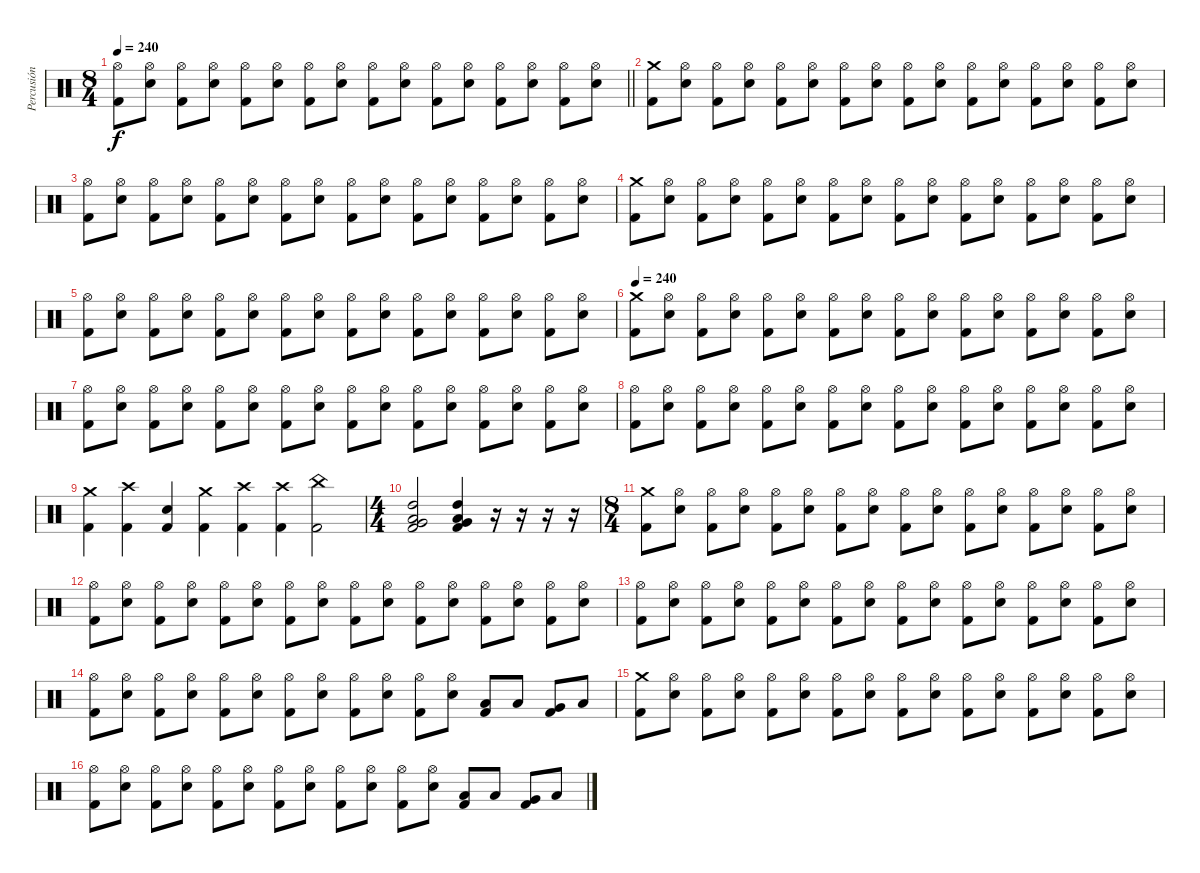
\track ("Percusión" "Percusión") {instrument percussion}
\staff {score}
\articulation defaults
\ts (8 4)
\tempo 240
\clef neutral
\barLineRight lightlight
\ks c
("Hi-Hat (open)" "Kick (hit) 2").8{dy f} ("Hi-Hat (open)" "Electric Snare (hit)").8 ("Hi-Hat (open)" "Kick (hit) 2").8 ("Hi-Hat (open)" "Electric Snare (hit)").8 ("Hi-Hat (open)" "Kick (hit) 2").8 ("Hi-Hat (open)" "Electric Snare (hit)").8 ("Hi-Hat (open)" "Kick (hit) 2").8 ("Hi-Hat (open)" "Electric Snare (hit)").8 ("Hi-Hat (open)" "Kick (hit) 2").8 ("Hi-Hat (open)" "Electric Snare (hit)").8 ("Hi-Hat (open)" "Kick (hit) 2").8 ("Hi-Hat (open)" "Electric Snare (hit)").8 ("Hi-Hat (open)" "Kick (hit) 2").8 ("Hi-Hat (open)" "Electric Snare (hit)").8 ("Hi-Hat (open)" "Kick (hit) 2").8 ("Hi-Hat (open)" "Electric Snare (hit)").8 |
("Crash medium (hit)" "Kick (hit) 2").8 ("Hi-Hat (open)" "Electric Snare (hit)").8 ("Hi-Hat (open)" "Kick (hit) 2").8 ("Hi-Hat (open)" "Electric Snare (hit)").8 ("Hi-Hat (open)" "Kick (hit) 2").8 ("Hi-Hat (open)" "Electric Snare (hit)").8 ("Hi-Hat (open)" "Kick (hit) 2").8 ("Hi-Hat (open)" "Electric Snare (hit)").8 ("Hi-Hat (open)" "Kick (hit) 2").8 ("Hi-Hat (open)" "Electric Snare (hit)").8 ("Hi-Hat (open)" "Kick (hit) 2").8 ("Hi-Hat (open)" "Electric Snare (hit)").8 ("Hi-Hat (open)" "Kick (hit) 2").8 ("Hi-Hat (open)" "Electric Snare (hit)").8 ("Hi-Hat (open)" "Kick (hit) 2").8 ("Hi-Hat (open)" "Electric Snare (hit)").8 |
("Hi-Hat (open)" "Kick (hit) 2").8 ("Hi-Hat (open)" "Electric Snare (hit)").8 ("Hi-Hat (open)" "Kick (hit) 2").8 ("Hi-Hat (open)" "Electric Snare (hit)").8 ("Hi-Hat (open)" "Kick (hit) 2").8 ("Hi-Hat (open)" "Electric Snare (hit)").8 ("Hi-Hat (open)" "Kick (hit) 2").8 ("Hi-Hat (open)" "Electric Snare (hit)").8 ("Hi-Hat (open)" "Kick (hit) 2").8 ("Hi-Hat (open)" "Electric Snare (hit)").8 ("Hi-Hat (open)" "Kick (hit) 2").8 ("Hi-Hat (open)" "Electric Snare (hit)").8 ("Hi-Hat (open)" "Kick (hit) 2").8 ("Hi-Hat (open)" "Electric Snare (hit)").8 ("Hi-Hat (open)" "Kick (hit) 2").8 ("Hi-Hat (open)" "Electric Snare (hit)").8 |
("Crash medium (hit)" "Kick (hit) 2").8 ("Hi-Hat (open)" "Electric Snare (hit)").8 ("Hi-Hat (open)" "Kick (hit) 2").8 ("Hi-Hat (open)" "Electric Snare (hit)").8 ("Hi-Hat (open)" "Kick (hit) 2").8 ("Hi-Hat (open)" "Electric Snare (hit)").8 ("Hi-Hat (open)" "Kick (hit) 2").8 ("Hi-Hat (open)" "Electric Snare (hit)").8 ("Hi-Hat (open)" "Kick (hit) 2").8 ("Hi-Hat (open)" "Electric Snare (hit)").8 ("Hi-Hat (open)" "Kick (hit) 2").8 ("Hi-Hat (open)" "Electric Snare (hit)").8 ("Hi-Hat (open)" "Kick (hit) 2").8 ("Hi-Hat (open)" "Electric Snare (hit)").8 ("Hi-Hat (open)" "Kick (hit) 2").8 ("Hi-Hat (open)" "Electric Snare (hit)").8 |
("Hi-Hat (open)" "Kick (hit) 2").8 ("Hi-Hat (open)" "Electric Snare (hit)").8 ("Hi-Hat (open)" "Kick (hit) 2").8 ("Hi-Hat (open)" "Electric Snare (hit)").8 ("Hi-Hat (open)" "Kick (hit) 2").8 ("Hi-Hat (open)" "Electric Snare (hit)").8 ("Hi-Hat (open)" "Kick (hit) 2").8 ("Hi-Hat (open)" "Electric Snare (hit)").8 ("Hi-Hat (open)" "Kick (hit) 2").8 ("Hi-Hat (open)" "Electric Snare (hit)").8 ("Hi-Hat (open)" "Kick (hit) 2").8 ("Hi-Hat (open)" "Electric Snare (hit)").8 ("Hi-Hat (open)" "Kick (hit) 2").8 ("Hi-Hat (open)" "Electric Snare (hit)").8 ("Hi-Hat (open)" "Kick (hit) 2").8 ("Hi-Hat (open)" "Electric Snare (hit)").8 |
\tempo 240
("Crash medium (hit)" "Kick (hit) 2").8 ("Hi-Hat (open)" "Electric Snare (hit)").8 ("Hi-Hat (open)" "Kick (hit) 2").8 ("Hi-Hat (open)" "Electric Snare (hit)").8 ("Hi-Hat (open)" "Kick (hit) 2").8 ("Hi-Hat (open)" "Electric Snare (hit)").8 ("Hi-Hat (open)" "Kick (hit) 2").8 ("Hi-Hat (open)" "Electric Snare (hit)").8 ("Hi-Hat (open)" "Kick (hit) 2").8 ("Hi-Hat (open)" "Electric Snare (hit)").8 ("Hi-Hat (open)" "Kick (hit) 2").8 ("Hi-Hat (open)" "Electric Snare (hit)").8 ("Hi-Hat (open)" "Kick (hit) 2").8 ("Hi-Hat (open)" "Electric Snare (hit)").8 ("Hi-Hat (open)" "Kick (hit) 2").8 ("Hi-Hat (open)" "Electric Snare (hit)").8 |
("Hi-Hat (open)" "Kick (hit) 2").8 ("Hi-Hat (open)" "Electric Snare (hit)").8 ("Hi-Hat (open)" "Kick (hit) 2").8 ("Hi-Hat (open)" "Electric Snare (hit)").8 ("Hi-Hat (open)" "Kick (hit) 2").8 ("Hi-Hat (open)" "Electric Snare (hit)").8 ("Hi-Hat (open)" "Kick (hit) 2").8 ("Hi-Hat (open)" "Electric Snare (hit)").8 ("Hi-Hat (open)" "Kick (hit) 2").8 ("Hi-Hat (open)" "Electric Snare (hit)").8 ("Hi-Hat (open)" "Kick (hit) 2").8 ("Hi-Hat (open)" "Electric Snare (hit)").8 ("Hi-Hat (open)" "Kick (hit) 2").8 ("Hi-Hat (open)" "Electric Snare (hit)").8 ("Hi-Hat (open)" "Kick (hit) 2").8 ("Hi-Hat (open)" "Electric Snare (hit)").8 |
("Hi-Hat (open)" "Kick (hit) 2").8 ("Hi-Hat (open)" "Electric Snare (hit)").8 ("Hi-Hat (open)" "Kick (hit) 2").8 ("Hi-Hat (open)" "Electric Snare (hit)").8 ("Hi-Hat (open)" "Kick (hit) 2").8 ("Hi-Hat (open)" "Electric Snare (hit)").8 ("Hi-Hat (open)" "Kick (hit) 2").8 ("Hi-Hat (open)" "Electric Snare (hit)").8 ("Hi-Hat (open)" "Kick (hit) 2").8 ("Hi-Hat (open)" "Electric Snare (hit)").8 ("Hi-Hat (open)" "Kick (hit) 2").8 ("Hi-Hat (open)" "Electric Snare (hit)").8 ("Hi-Hat (open)" "Kick (hit) 2").8 ("Hi-Hat (open)" "Electric Snare (hit)").8 ("Hi-Hat (open)" "Kick (hit) 2").8 ("Hi-Hat (open)" "Electric Snare (hit)").8 |
("Crash medium (hit)" "Kick (hit) 2").4 ("Crash high (hit)" "Kick (hit) 2").4 ("Electric Snare (hit)" "Kick (hit) 2").4 ("Crash medium (hit)" "Kick (hit) 2").4 ("Crash high (hit)" "Kick (hit) 2").4 ("Crash high (hit)" "Kick (hit) 2").4 ("China (hit)" "Kick (hit) 2").2 |
\ts (4 4)
("High Tom (hit)" "Very Low Tom (hit)" "Low Floor Tom (hit)" "Kick (hit) 2").2 ("High Tom (hit)" "Very Low Tom (hit)" "Low Floor Tom (hit)" "Kick (hit) 2").4 r.16 r.16 r.16 r.16 |
\ts (8 4)
("Crash medium (hit)" "Kick (hit) 2").8 ("Hi-Hat (open)" "Electric Snare (hit)").8 ("Hi-Hat (open)" "Kick (hit) 2").8 ("Hi-Hat (open)" "Electric Snare (hit)").8 ("Hi-Hat (open)" "Kick (hit) 2").8 ("Hi-Hat (open)" "Electric Snare (hit)").8 ("Hi-Hat (open)" "Kick (hit) 2").8 ("Hi-Hat (open)" "Electric Snare (hit)").8 ("Hi-Hat (open)" "Kick (hit) 2").8 ("Hi-Hat (open)" "Electric Snare (hit)").8 ("Hi-Hat (open)" "Kick (hit) 2").8 ("Hi-Hat (open)" "Electric Snare (hit)").8 ("Hi-Hat (open)" "Kick (hit) 2").8 ("Hi-Hat (open)" "Electric Snare (hit)").8 ("Hi-Hat (open)" "Kick (hit) 2").8 ("Hi-Hat (open)" "Electric Snare (hit)").8 |
("Hi-Hat (open)" "Kick (hit) 2").8 ("Hi-Hat (open)" "Electric Snare (hit)").8 ("Hi-Hat (open)" "Kick (hit) 2").8 ("Hi-Hat (open)" "Electric Snare (hit)").8 ("Hi-Hat (open)" "Kick (hit) 2").8 ("Hi-Hat (open)" "Electric Snare (hit)").8 ("Hi-Hat (open)" "Kick (hit) 2").8 ("Hi-Hat (open)" "Electric Snare (hit)").8 ("Hi-Hat (open)" "Kick (hit) 2").8 ("Hi-Hat (open)" "Electric Snare (hit)").8 ("Hi-Hat (open)" "Kick (hit) 2").8 ("Hi-Hat (open)" "Electric Snare (hit)").8 ("Hi-Hat (open)" "Kick (hit) 2").8 ("Hi-Hat (open)" "Electric Snare (hit)").8 ("Hi-Hat (open)" "Kick (hit) 2").8 ("Hi-Hat (open)" "Electric Snare (hit)").8 |
("Hi-Hat (open)" "Kick (hit) 2").8 ("Hi-Hat (open)" "Electric Snare (hit)").8 ("Hi-Hat (open)" "Kick (hit) 2").8 ("Hi-Hat (open)" "Electric Snare (hit)").8 ("Hi-Hat (open)" "Kick (hit) 2").8 ("Hi-Hat (open)" "Electric Snare (hit)").8 ("Hi-Hat (open)" "Kick (hit) 2").8 ("Hi-Hat (open)" "Electric Snare (hit)").8 ("Hi-Hat (open)" "Kick (hit) 2").8 ("Hi-Hat (open)" "Electric Snare (hit)").8 ("Hi-Hat (open)" "Kick (hit) 2").8 ("Hi-Hat (open)" "Electric Snare (hit)").8 ("Hi-Hat (open)" "Kick (hit) 2").8 ("Hi-Hat (open)" "Electric Snare (hit)").8 ("Hi-Hat (open)" "Kick (hit) 2").8 ("Hi-Hat (open)" "Electric Snare (hit)").8 |
("Hi-Hat (open)" "Kick (hit) 2").8 ("Hi-Hat (open)" "Electric Snare (hit)").8 ("Hi-Hat (open)" "Kick (hit) 2").8 ("Hi-Hat (open)" "Electric Snare (hit)").8 ("Hi-Hat (open)" "Kick (hit) 2").8 ("Hi-Hat (open)" "Electric Snare (hit)").8 ("Hi-Hat (open)" "Kick (hit) 2").8 ("Hi-Hat (open)" "Electric Snare (hit)").8 ("Hi-Hat (open)" "Kick (hit) 2").8 ("Hi-Hat (open)" "Electric Snare (hit)").8 ("Hi-Hat (open)" "Kick (hit) 2").8 ("Hi-Hat (open)" "Electric Snare (hit)").8 ("Low Tom (hit)" "Kick (hit) 2").8 "Low Tom (hit)".8 ("Very Low Tom (hit)" "Kick (hit) 2").8 "Low Floor Tom (hit)".8 |
("Crash medium (hit)" "Kick (hit) 2").8 ("Hi-Hat (open)" "Electric Snare (hit)").8 ("Hi-Hat (open)" "Kick (hit) 2").8 ("Hi-Hat (open)" "Electric Snare (hit)").8 ("Hi-Hat (open)" "Kick (hit) 2").8 ("Hi-Hat (open)" "Electric Snare (hit)").8 ("Hi-Hat (open)" "Kick (hit) 2").8 ("Hi-Hat (open)" "Electric Snare (hit)").8 ("Hi-Hat (open)" "Kick (hit) 2").8 ("Hi-Hat (open)" "Electric Snare (hit)").8 ("Hi-Hat (open)" "Kick (hit) 2").8 ("Hi-Hat (open)" "Electric Snare (hit)").8 ("Hi-Hat (open)" "Kick (hit) 2").8 ("Hi-Hat (open)" "Electric Snare (hit)").8 ("Hi-Hat (open)" "Kick (hit) 2").8 ("Hi-Hat (open)" "Electric Snare (hit)").8 |
("Hi-Hat (open)" "Kick (hit) 2").8 ("Hi-Hat (open)" "Electric Snare (hit)").8 ("Hi-Hat (open)" "Kick (hit) 2").8 ("Hi-Hat (open)" "Electric Snare (hit)").8 ("Hi-Hat (open)" "Kick (hit) 2").8 ("Hi-Hat (open)" "Electric Snare (hit)").8 ("Hi-Hat (open)" "Kick (hit) 2").8 ("Hi-Hat (open)" "Electric Snare (hit)").8 ("Hi-Hat (open)" "Kick (hit) 2").8 ("Hi-Hat (open)" "Electric Snare (hit)").8 ("Hi-Hat (open)" "Kick (hit) 2").8 ("Hi-Hat (open)" "Electric Snare (hit)").8 ("Low Tom (hit)" "Kick (hit) 2").8 "Low Tom (hit)".8 ("Very Low Tom (hit)" "Kick (hit) 2").8 "Low Floor Tom (hit)".8
